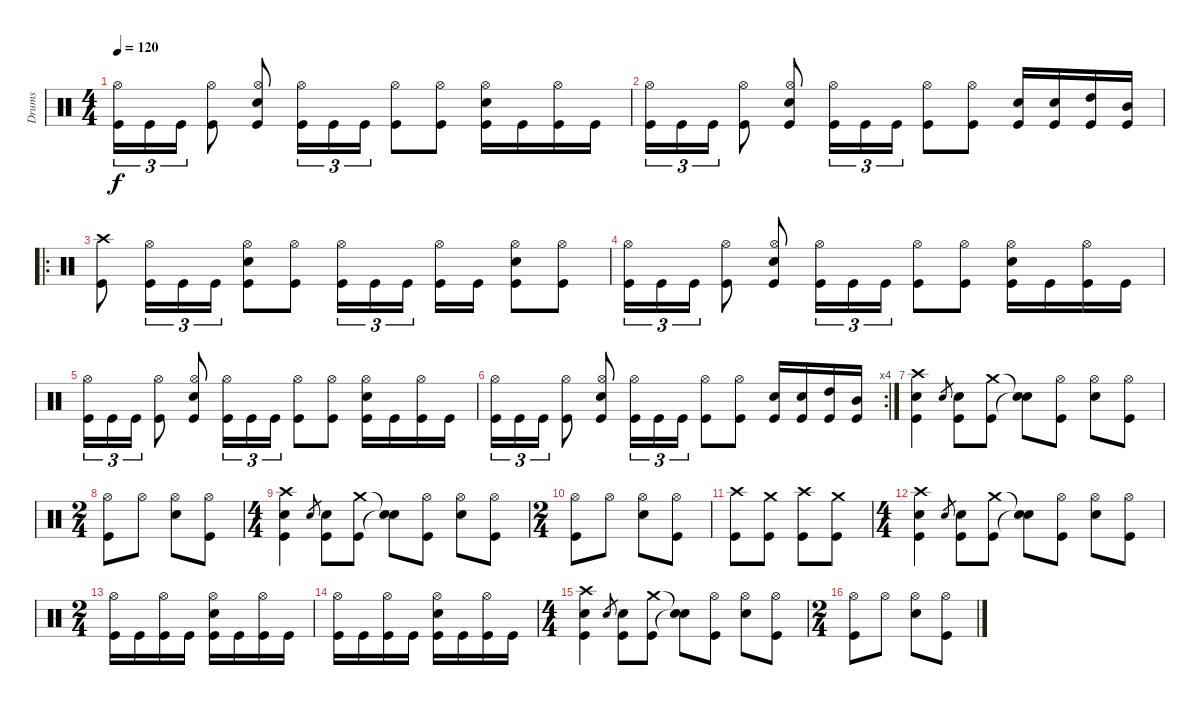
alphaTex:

\track ("Drums" "Drums") {instrument percussion}
\staff {score}
\articulation defaults
\ts (4 4)
\tempo 120
\clef neutral
\ks c
("Kick (hit)" "Hi-Hat (open)").16{tu (3 2) dy f} "Kick (hit)".16{tu (3 2)} "Kick (hit)".16{tu (3 2)} ("Kick (hit)" "Hi-Hat (open)").8 ("Kick (hit)" "Electric Snare (hit)" "Hi-Hat (open)").8 ("Kick (hit)" "Hi-Hat (open)").16{tu (3 2)} "Kick (hit)".16{tu (3 2)} "Kick (hit)".16{tu (3 2)} ("Kick (hit)" "Hi-Hat (open)").8 ("Kick (hit)" "Hi-Hat (open)").8 ("Kick (hit)" "Electric Snare (hit)" "Hi-Hat (open)").16 "Kick (hit)".16 ("Kick (hit)" "Hi-Hat (open)").16 "Kick (hit)".16 |
("Kick (hit)" "Hi-Hat (open)").16{tu (3 2)} "Kick (hit)".16{tu (3 2)} "Kick (hit)".16{tu (3 2)} ("Kick (hit)" "Hi-Hat (open)").8 ("Kick (hit)" "Electric Snare (hit)" "Hi-Hat (open)").8 ("Kick (hit)" "Hi-Hat (open)").16{tu (3 2)} "Kick (hit)".16{tu (3 2)} "Kick (hit)".16{tu (3 2)} ("Kick (hit)" "Hi-Hat (open)").8 ("Kick (hit)" "Hi-Hat (open)").8 ("Kick (hit)" "Electric Snare (hit)").16 ("Kick (hit)" "Electric Snare (hit)").16 ("Kick (hit)" "High Tom (hit)").16 ("Kick (hit)" "Mid Tom (hit)").16 |
\ro
("Kick (hit)" "Crash high (hit)").8 ("Kick (hit)" "Hi-Hat (open)").16{tu (3 2)} "Kick (hit)".16{tu (3 2)} "Kick (hit)".16{tu (3 2)} ("Kick (hit)" "Electric Snare (hit)" "Hi-Hat (open)").8 ("Kick (hit)" "Hi-Hat (open)").8 ("Kick (hit)" "Hi-Hat (open)").16{tu (3 2)} "Kick (hit)".16{tu (3 2)} "Kick (hit)".16{tu (3 2)} ("Kick (hit)" "Hi-Hat (open)").16 "Kick (hit)".16 ("Kick (hit)" "Electric Snare (hit)" "Hi-Hat (open)").8 ("Kick (hit)" "Hi-Hat (open)").8 |
("Kick (hit)" "Hi-Hat (open)").16{tu (3 2)} "Kick (hit)".16{tu (3 2)} "Kick (hit)".16{tu (3 2)} ("Kick (hit)" "Hi-Hat (open)").8 ("Kick (hit)" "Electric Snare (hit)" "Hi-Hat (open)").8 ("Kick (hit)" "Hi-Hat (open)").16{tu (3 2)} "Kick (hit)".16{tu (3 2)} "Kick (hit)".16{tu (3 2)} ("Kick (hit)" "Hi-Hat (open)").8 ("Kick (hit)" "Hi-Hat (open)").8 ("Kick (hit)" "Electric Snare (hit)" "Hi-Hat (open)").16 "Kick (hit)".16 ("Kick (hit)" "Hi-Hat (open)").16 "Kick (hit)".16 |
("Kick (hit)" "Hi-Hat (open)").16{tu (3 2)} "Kick (hit)".16{tu (3 2)} "Kick (hit)".16{tu (3 2)} ("Kick (hit)" "Hi-Hat (open)").8 ("Kick (hit)" "Electric Snare (hit)" "Hi-Hat (open)").8 ("Kick (hit)" "Hi-Hat (open)").16{tu (3 2)} "Kick (hit)".16{tu (3 2)} "Kick (hit)".16{tu (3 2)} ("Kick (hit)" "Hi-Hat (open)").8 ("Kick (hit)" "Hi-Hat (open)").8 ("Kick (hit)" "Electric Snare (hit)" "Hi-Hat (open)").16 "Kick (hit)".16 ("Kick (hit)" "Hi-Hat (open)").16 "Kick (hit)".16 |
\rc 4
("Kick (hit)" "Hi-Hat (open)").16{tu (3 2)} "Kick (hit)".16{tu (3 2)} "Kick (hit)".16{tu (3 2)} ("Kick (hit)" "Hi-Hat (open)").8 ("Kick (hit)" "Electric Snare (hit)" "Hi-Hat (open)").8 ("Kick (hit)" "Hi-Hat (open)").16{tu (3 2)} "Kick (hit)".16{tu (3 2)} "Kick (hit)".16{tu (3 2)} ("Kick (hit)" "Hi-Hat (open)").8 ("Kick (hit)" "Hi-Hat (open)").8 ("Kick (hit)" "Electric Snare (hit)").16 ("Kick (hit)" "Electric Snare (hit)").16 ("Kick (hit)" "High Tom (hit)").16 ("Kick (hit)" "Mid Tom (hit)").16 |
("Kick (hit)" "Electric Snare (hit)" "Crash high (hit)").4 "Electric Snare (hit)".8{gr} ("Kick (hit)" "Electric Snare (hit)").8 ("Kick (hit)" "Crash medium (hit)").8 ("Snare (hit)"{t} "Snare (hit)"{t}).8 ("Kick (hit)" "Hi-Hat (open)").8 ("Electric Snare (hit)" "Hi-Hat (open)").8 ("Kick (hit)" "Hi-Hat (open)").8 |
\ts (2 4)
("Kick (hit)" "Hi-Hat (open)").8 "Hi-Hat (open)".8 ("Electric Snare (hit)" "Hi-Hat (open)").8 ("Kick (hit)" "Hi-Hat (open)").8 |
\ts (4 4)
("Kick (hit)" "Electric Snare (hit)" "Crash high (hit)").4 "Electric Snare (hit)".8{gr} ("Kick (hit)" "Electric Snare (hit)").8 ("Kick (hit)" "Crash medium (hit)").8 ("Snare (hit)"{t} "Snare (hit)"{t}).8 ("Kick (hit)" "Hi-Hat (open)").8 ("Electric Snare (hit)" "Hi-Hat (open)").8 ("Kick (hit)" "Hi-Hat (open)").8 |
\ts (2 4)
("Kick (hit)" "Hi-Hat (open)").8 "Hi-Hat (open)".8 ("Electric Snare (hit)" "Hi-Hat (open)").8 ("Kick (hit)" "Hi-Hat (open)").8 |
("Kick (hit)" "Crash high (hit)").8 ("Kick (hit)" "Crash medium (hit)").8 ("Kick (hit)" "Crash high (hit)").8 ("Kick (hit)" "Crash medium (hit)").8 |
\ts (4 4)
("Kick (hit)" "Electric Snare (hit)" "Crash high (hit)").4 "Electric Snare (hit)".8{gr} ("Kick (hit)" "Electric Snare (hit)").8 ("Kick (hit)" "Crash medium (hit)").8 ("Snare (hit)"{t} "Snare (hit)"{t}).8 ("Kick (hit)" "Hi-Hat (open)").8 ("Electric Snare (hit)" "Hi-Hat (open)").8 ("Kick (hit)" "Hi-Hat (open)").8 |
\ts (2 4)
("Kick (hit)" "Hi-Hat (open)").16 "Kick (hit)".16 ("Kick (hit)" "Hi-Hat (open)").16 "Kick (hit)".16 ("Kick (hit)" "Electric Snare (hit)" "Hi-Hat (open)").16 "Kick (hit)".16 ("Kick (hit)" "Hi-Hat (open)").16 "Kick (hit)".16 |
("Kick (hit)" "Hi-Hat (open)").16 "Kick (hit)".16 ("Kick (hit)" "Hi-Hat (open)").16 "Kick (hit)".16 ("Kick (hit)" "Electric Snare (hit)" "Hi-Hat (open)").16 "Kick (hit)".16 ("Kick (hit)" "Hi-Hat (open)").16 "Kick (hit)".16 |
\ts (4 4)
("Kick (hit)" "Electric Snare (hit)" "Crash high (hit)").4 "Electric Snare (hit)".8{gr} ("Kick (hit)" "Electric Snare (hit)").8 ("Kick (hit)" "Crash medium (hit)").8 ("Snare (hit)"{t} "Snare (hit)"{t}).8 ("Kick (hit)" "Hi-Hat (open)").8 ("Electric Snare (hit)" "Hi-Hat (open)").8 ("Kick (hit)" "Hi-Hat (open)").8 |
\ts (2 4)
("Kick (hit)" "Hi-Hat (open)").8 "Hi-Hat (open)".8 ("Electric Snare (hit)" "Hi-Hat (open)").8 ("Kick (hit)" "Hi-Hat (open)").8
